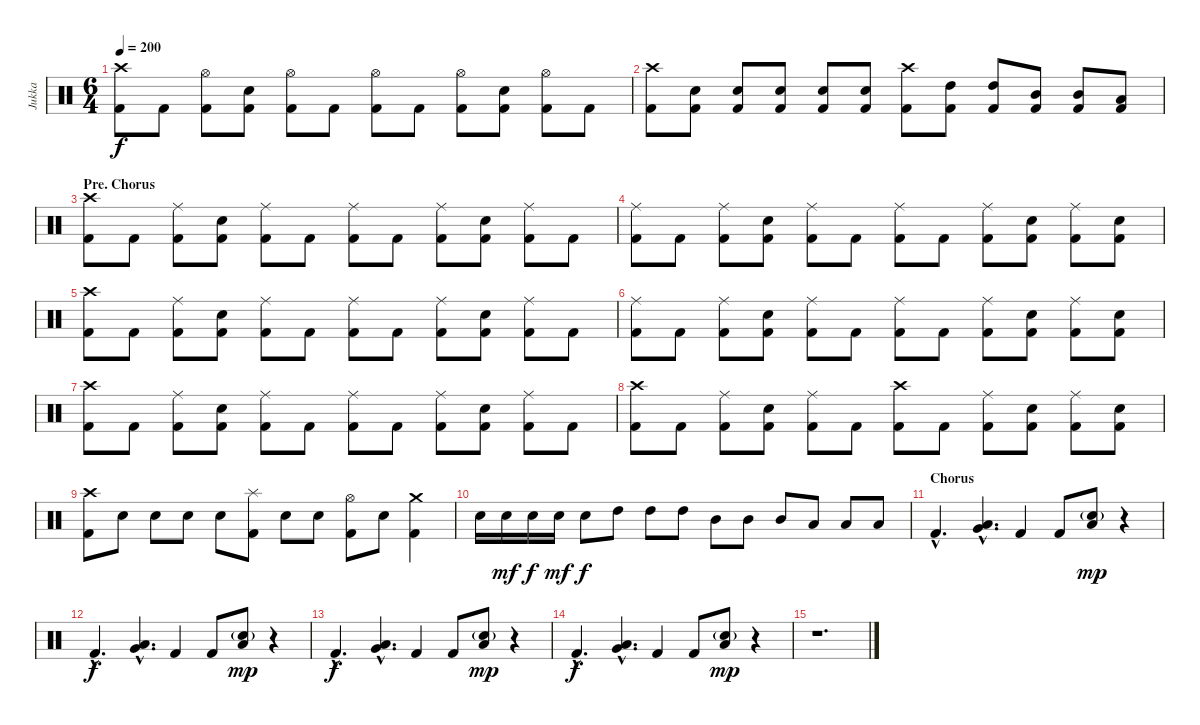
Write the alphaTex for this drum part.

\track ("Jukka" "Jukka") {instrument percussion}
\staff {score}
\articulation defaults
\ts (6 4)
\tempo 200
\clef neutral
\ks c
("Crash high (hit)" "Kick (hit) 2").8{dy f} "Kick (hit) 2".8 ("Hi-Hat (open)" "Kick (hit) 2").8 ("Snare (hit) 2" "Kick (hit) 2").8 ("Hi-Hat (open)" "Kick (hit) 2").8 "Kick (hit) 2".8 ("Hi-Hat (open)" "Kick (hit) 2").8 "Kick (hit) 2".8 ("Hi-Hat (open)" "Kick (hit) 2").8 ("Snare (hit) 2" "Kick (hit) 2").8 ("Hi-Hat (open)" "Kick (hit) 2").8 "Kick (hit) 2".8 |
("Crash high (hit)" "Kick (hit) 2").8 ("Snare (hit) 2" "Kick (hit) 2").8 ("Snare (hit) 2" "Kick (hit) 2").8 ("Snare (hit) 2" "Kick (hit) 2").8 ("Snare (hit) 2" "Kick (hit) 2").8 ("Snare (hit) 2" "Kick (hit) 2").8 ("Crash high (hit)" "Kick (hit) 2").8 ("High Tom (hit)" "Kick (hit) 2").8 ("High Tom (hit)" "Kick (hit) 2").8 ("Mid Tom (hit)" "Kick (hit) 2").8 ("Mid Tom (hit)" "Kick (hit) 2").8 ("Low Tom (hit)" "Kick (hit) 2").8 |
\section ("" "Pre. Chorus")
("Crash high (hit)" "Kick (hit) 2").8 "Kick (hit) 2".8 ("Ride (middle)" "Kick (hit) 2").8 ("Snare (hit) 2" "Kick (hit) 2").8 ("Ride (middle)" "Kick (hit) 2").8 "Kick (hit) 2".8 ("Ride (middle)" "Kick (hit) 2").8 "Kick (hit) 2".8 ("Ride (middle)" "Kick (hit) 2").8 ("Snare (hit) 2" "Kick (hit) 2").8 ("Ride (middle)" "Kick (hit) 2").8 "Kick (hit) 2".8 |
("Ride (middle)" "Kick (hit) 2").8 "Kick (hit) 2".8 ("Ride (middle)" "Kick (hit) 2").8 ("Snare (hit) 2" "Kick (hit) 2").8 ("Ride (middle)" "Kick (hit) 2").8 "Kick (hit) 2".8 ("Ride (middle)" "Kick (hit) 2").8 "Kick (hit) 2".8 ("Ride (middle)" "Kick (hit) 2").8 ("Snare (hit) 2" "Kick (hit) 2").8 ("Ride (middle)" "Kick (hit) 2").8 ("Snare (hit) 2" "Kick (hit) 2").8 |
("Crash high (hit)" "Kick (hit) 2").8 "Kick (hit) 2".8 ("Ride (middle)" "Kick (hit) 2").8 ("Snare (hit) 2" "Kick (hit) 2").8 ("Ride (middle)" "Kick (hit) 2").8 "Kick (hit) 2".8 ("Ride (middle)" "Kick (hit) 2").8 "Kick (hit) 2".8 ("Ride (middle)" "Kick (hit) 2").8 ("Snare (hit) 2" "Kick (hit) 2").8 ("Ride (middle)" "Kick (hit) 2").8 "Kick (hit) 2".8 |
("Ride (middle)" "Kick (hit) 2").8 "Kick (hit) 2".8 ("Ride (middle)" "Kick (hit) 2").8 ("Snare (hit) 2" "Kick (hit) 2").8 ("Ride (middle)" "Kick (hit) 2").8 "Kick (hit) 2".8 ("Ride (middle)" "Kick (hit) 2").8 "Kick (hit) 2".8 ("Ride (middle)" "Kick (hit) 2").8 ("Snare (hit) 2" "Kick (hit) 2").8 ("Ride (middle)" "Kick (hit) 2").8 ("Snare (hit) 2" "Kick (hit) 2").8 |
("Crash high (hit)" "Kick (hit) 2").8 "Kick (hit) 2".8 ("Ride (middle)" "Kick (hit) 2").8 ("Snare (hit) 2" "Kick (hit) 2").8 ("Ride (middle)" "Kick (hit) 2").8 "Kick (hit) 2".8 ("Ride (middle)" "Kick (hit) 2").8 "Kick (hit) 2".8 ("Ride (middle)" "Kick (hit) 2").8 ("Snare (hit) 2" "Kick (hit) 2").8 ("Ride (middle)" "Kick (hit) 2").8 "Kick (hit) 2".8 |
("Crash high (hit)" "Kick (hit) 2").8 "Kick (hit) 2".8 ("Ride (middle)" "Kick (hit) 2").8 ("Snare (hit) 2" "Kick (hit) 2").8 ("Ride (middle)" "Kick (hit) 2").8 "Kick (hit) 2".8 ("Crash high (hit)" "Kick (hit) 2").8 "Kick (hit) 2".8 ("Ride (middle)" "Kick (hit) 2").8 ("Snare (hit) 2" "Kick (hit) 2").8 ("Ride (middle)" "Kick (hit) 2").8 ("Snare (hit) 2" "Kick (hit) 2").8 |
("Crash high (hit)" "Kick (hit) 2").8 "Snare (hit) 2".8 "Snare (hit) 2".8 "Snare (hit) 2".8 "Snare (hit) 2".8 ("Splash (hit)" "Kick (hit) 2").8 "Snare (hit) 2".8 "Snare (hit) 2".8 ("Hi-Hat (open)" "Kick (hit) 2").8 "Snare (hit) 2".8 ("Crash medium (hit)" "Kick (hit) 2").4 |
"Snare (hit) 2".16 "Snare (hit) 2".16{dy mf} "Snare (hit) 2".16{dy f} "Snare (hit) 2".16{dy mf} "Snare (hit) 2".8{dy f} "High Tom (hit)".8 "High Tom (hit)".8 "High Tom (hit)".8 "Mid Tom (hit)".8 "Mid Tom (hit)".8 "Mid Tom (hit)".8 "Low Tom (hit)".8 "Low Tom (hit)".8 "Low Tom (hit)".8 |
\section ("" "Chorus")
"Kick (hit) 2"{hac}.4{d} ("Low Floor Tom (hit)"{hac} "Very Low Tom (hit)"{hac}).4{d} "Kick (hit) 2".4 "Kick (hit) 2".8 ("Snare (hit) 2"{g} "Low Floor Tom (hit)").8{dy mp} r.4 |
"Kick (hit) 2"{hac}.4{d dy f} ("Low Floor Tom (hit)"{hac} "Very Low Tom (hit)"{hac}).4{d} "Kick (hit) 2".4 "Kick (hit) 2".8 ("Snare (hit) 2"{g} "Low Floor Tom (hit)").8{dy mp} r.4 |
"Kick (hit) 2"{hac}.4{d dy f} ("Low Floor Tom (hit)"{hac} "Very Low Tom (hit)"{hac}).4{d} "Kick (hit) 2".4 "Kick (hit) 2".8 ("Snare (hit) 2"{g} "Low Floor Tom (hit)").8{dy mp} r.4 |
"Kick (hit) 2"{hac}.4{d dy f} ("Low Floor Tom (hit)"{hac} "Very Low Tom (hit)"{hac}).4{d} "Kick (hit) 2".4 "Kick (hit) 2".8 ("Snare (hit) 2"{g} "Low Floor Tom (hit)").8{dy mp} r.4 |
r.1{d}
